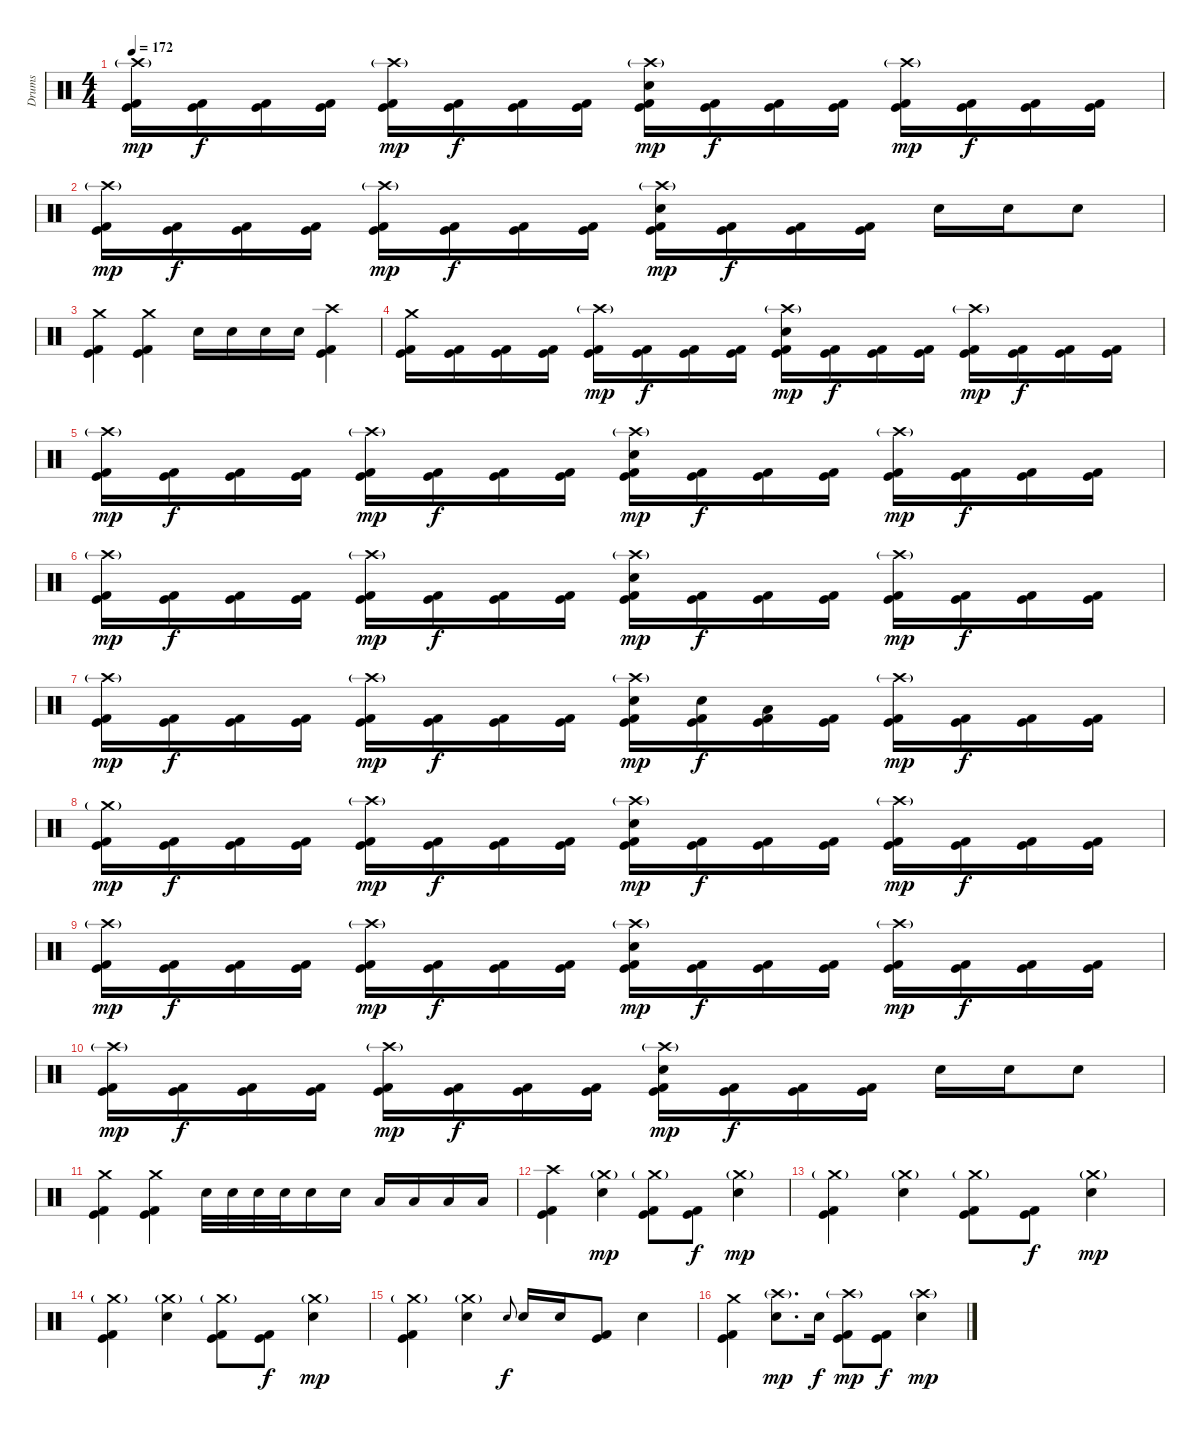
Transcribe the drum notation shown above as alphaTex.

\track ("Drums" "Drums") {instrument percussion}
\staff {score}
\articulation defaults
\ts (4 4)
\tempo 172
\clef neutral
\ks c
("Crash high (hit)"{g} "Kick (hit)" "Kick (hit) 2").16{dy mp} ("Kick (hit)" "Kick (hit) 2").16{dy f} ("Kick (hit)" "Kick (hit) 2").16 ("Kick (hit)" "Kick (hit) 2").16 ("Crash high (hit)"{g} "Kick (hit)" "Kick (hit) 2").16{dy mp} ("Kick (hit)" "Kick (hit) 2").16{dy f} ("Kick (hit)" "Kick (hit) 2").16 ("Kick (hit)" "Kick (hit) 2").16 ("Crash high (hit)"{g} "Electric Snare (hit)" "Kick (hit)" "Kick (hit) 2").16{dy mp} ("Kick (hit)" "Kick (hit) 2").16{dy f} ("Kick (hit)" "Kick (hit) 2").16 ("Kick (hit)" "Kick (hit) 2").16 ("Crash high (hit)"{g} "Kick (hit)" "Kick (hit) 2").16{dy mp} ("Kick (hit)" "Kick (hit) 2").16{dy f} ("Kick (hit)" "Kick (hit) 2").16 ("Kick (hit)" "Kick (hit) 2").16 |
("Crash high (hit)"{g} "Kick (hit)" "Kick (hit) 2").16{dy mp} ("Kick (hit)" "Kick (hit) 2").16{dy f} ("Kick (hit)" "Kick (hit) 2").16 ("Kick (hit)" "Kick (hit) 2").16 ("Crash high (hit)"{g} "Kick (hit)" "Kick (hit) 2").16{dy mp} ("Kick (hit)" "Kick (hit) 2").16{dy f} ("Kick (hit)" "Kick (hit) 2").16 ("Kick (hit)" "Kick (hit) 2").16 ("Crash high (hit)"{g} "Electric Snare (hit)" "Kick (hit)" "Kick (hit) 2").16{dy mp} ("Kick (hit)" "Kick (hit) 2").16{dy f} ("Kick (hit)" "Kick (hit) 2").16 ("Kick (hit)" "Kick (hit) 2").16 "Electric Snare (hit)".16 "Electric Snare (hit)".16 "Electric Snare (hit)".8 |
("Crash medium (hit)" "Kick (hit)" "Kick (hit) 2").4 ("Crash medium (hit)" "Kick (hit)" "Kick (hit) 2").4 "Electric Snare (hit)".16 "Electric Snare (hit)".16 "Electric Snare (hit)".16 "Electric Snare (hit)".16 ("Crash high (hit)" "Kick (hit)" "Kick (hit) 2").4 |
("Crash medium (hit)" "Kick (hit)" "Kick (hit) 2").16 ("Kick (hit)" "Kick (hit) 2").16 ("Kick (hit)" "Kick (hit) 2").16 ("Kick (hit)" "Kick (hit) 2").16 ("Crash high (hit)"{g} "Kick (hit)" "Kick (hit) 2").16{dy mp} ("Kick (hit)" "Kick (hit) 2").16{dy f} ("Kick (hit)" "Kick (hit) 2").16 ("Kick (hit)" "Kick (hit) 2").16 ("Crash high (hit)"{g} "Electric Snare (hit)" "Kick (hit)" "Kick (hit) 2").16{dy mp} ("Kick (hit)" "Kick (hit) 2").16{dy f} ("Kick (hit)" "Kick (hit) 2").16 ("Kick (hit)" "Kick (hit) 2").16 ("Crash high (hit)"{g} "Kick (hit)" "Kick (hit) 2").16{dy mp} ("Kick (hit)" "Kick (hit) 2").16{dy f} ("Kick (hit)" "Kick (hit) 2").16 ("Kick (hit)" "Kick (hit) 2").16 |
("Crash high (hit)"{g} "Kick (hit)" "Kick (hit) 2").16{dy mp} ("Kick (hit)" "Kick (hit) 2").16{dy f} ("Kick (hit)" "Kick (hit) 2").16 ("Kick (hit)" "Kick (hit) 2").16 ("Crash high (hit)"{g} "Kick (hit)" "Kick (hit) 2").16{dy mp} ("Kick (hit)" "Kick (hit) 2").16{dy f} ("Kick (hit)" "Kick (hit) 2").16 ("Kick (hit)" "Kick (hit) 2").16 ("Crash high (hit)"{g} "Electric Snare (hit)" "Kick (hit)" "Kick (hit) 2").16{dy mp} ("Kick (hit)" "Kick (hit) 2").16{dy f} ("Kick (hit)" "Kick (hit) 2").16 ("Kick (hit)" "Kick (hit) 2").16 ("Crash high (hit)"{g} "Kick (hit)" "Kick (hit) 2").16{dy mp} ("Kick (hit)" "Kick (hit) 2").16{dy f} ("Kick (hit)" "Kick (hit) 2").16 ("Kick (hit)" "Kick (hit) 2").16 |
("Crash high (hit)"{g} "Kick (hit)" "Kick (hit) 2").16{dy mp} ("Kick (hit)" "Kick (hit) 2").16{dy f} ("Kick (hit)" "Kick (hit) 2").16 ("Kick (hit)" "Kick (hit) 2").16 ("Crash high (hit)"{g} "Kick (hit)" "Kick (hit) 2").16{dy mp} ("Kick (hit)" "Kick (hit) 2").16{dy f} ("Kick (hit)" "Kick (hit) 2").16 ("Kick (hit)" "Kick (hit) 2").16 ("Crash high (hit)"{g} "Electric Snare (hit)" "Kick (hit)" "Kick (hit) 2").16{dy mp} ("Kick (hit)" "Kick (hit) 2").16{dy f} ("Kick (hit)" "Kick (hit) 2").16 ("Kick (hit)" "Kick (hit) 2").16 ("Crash high (hit)"{g} "Kick (hit)" "Kick (hit) 2").16{dy mp} ("Kick (hit)" "Kick (hit) 2").16{dy f} ("Kick (hit)" "Kick (hit) 2").16 ("Kick (hit)" "Kick (hit) 2").16 |
("Crash high (hit)"{g} "Kick (hit)" "Kick (hit) 2").16{dy mp} ("Kick (hit)" "Kick (hit) 2").16{dy f} ("Kick (hit)" "Kick (hit) 2").16 ("Kick (hit)" "Kick (hit) 2").16 ("Crash high (hit)"{g} "Kick (hit)" "Kick (hit) 2").16{dy mp} ("Kick (hit)" "Kick (hit) 2").16{dy f} ("Kick (hit)" "Kick (hit) 2").16 ("Kick (hit)" "Kick (hit) 2").16 ("Crash high (hit)"{g} "Electric Snare (hit)" "Kick (hit)" "Kick (hit) 2").16{dy mp} ("Electric Snare (hit)" "Kick (hit)" "Kick (hit) 2").16{dy f} ("Low Tom (hit)" "Kick (hit)" "Kick (hit) 2").16 ("Kick (hit)" "Kick (hit) 2").16 ("Crash high (hit)"{g} "Kick (hit)" "Kick (hit) 2").16{dy mp} ("Kick (hit)" "Kick (hit) 2").16{dy f} ("Kick (hit)" "Kick (hit) 2").16 ("Kick (hit)" "Kick (hit) 2").16 |
("Crash medium (hit)"{g} "Kick (hit)" "Kick (hit) 2").16{dy mp} ("Kick (hit)" "Kick (hit) 2").16{dy f} ("Kick (hit)" "Kick (hit) 2").16 ("Kick (hit)" "Kick (hit) 2").16 ("Crash high (hit)"{g} "Kick (hit)" "Kick (hit) 2").16{dy mp} ("Kick (hit)" "Kick (hit) 2").16{dy f} ("Kick (hit)" "Kick (hit) 2").16 ("Kick (hit)" "Kick (hit) 2").16 ("Crash high (hit)"{g} "Electric Snare (hit)" "Kick (hit)" "Kick (hit) 2").16{dy mp} ("Kick (hit)" "Kick (hit) 2").16{dy f} ("Kick (hit)" "Kick (hit) 2").16 ("Kick (hit)" "Kick (hit) 2").16 ("Crash high (hit)"{g} "Kick (hit)" "Kick (hit) 2").16{dy mp} ("Kick (hit)" "Kick (hit) 2").16{dy f} ("Kick (hit)" "Kick (hit) 2").16 ("Kick (hit)" "Kick (hit) 2").16 |
("Crash high (hit)"{g} "Kick (hit)" "Kick (hit) 2").16{dy mp} ("Kick (hit)" "Kick (hit) 2").16{dy f} ("Kick (hit)" "Kick (hit) 2").16 ("Kick (hit)" "Kick (hit) 2").16 ("Crash high (hit)"{g} "Kick (hit)" "Kick (hit) 2").16{dy mp} ("Kick (hit)" "Kick (hit) 2").16{dy f} ("Kick (hit)" "Kick (hit) 2").16 ("Kick (hit)" "Kick (hit) 2").16 ("Crash high (hit)"{g} "Electric Snare (hit)" "Kick (hit)" "Kick (hit) 2").16{dy mp} ("Kick (hit)" "Kick (hit) 2").16{dy f} ("Kick (hit)" "Kick (hit) 2").16 ("Kick (hit)" "Kick (hit) 2").16 ("Crash high (hit)"{g} "Kick (hit)" "Kick (hit) 2").16{dy mp} ("Kick (hit)" "Kick (hit) 2").16{dy f} ("Kick (hit)" "Kick (hit) 2").16 ("Kick (hit)" "Kick (hit) 2").16 |
("Crash high (hit)"{g} "Kick (hit)" "Kick (hit) 2").16{dy mp} ("Kick (hit)" "Kick (hit) 2").16{dy f} ("Kick (hit)" "Kick (hit) 2").16 ("Kick (hit)" "Kick (hit) 2").16 ("Crash high (hit)"{g} "Kick (hit)" "Kick (hit) 2").16{dy mp} ("Kick (hit)" "Kick (hit) 2").16{dy f} ("Kick (hit)" "Kick (hit) 2").16 ("Kick (hit)" "Kick (hit) 2").16 ("Crash high (hit)"{g} "Electric Snare (hit)" "Kick (hit)" "Kick (hit) 2").16{dy mp} ("Kick (hit)" "Kick (hit) 2").16{dy f} ("Kick (hit)" "Kick (hit) 2").16 ("Kick (hit)" "Kick (hit) 2").16 "Electric Snare (hit)".16 "Electric Snare (hit)".16 "Electric Snare (hit)".8 |
("Crash medium (hit)" "Kick (hit)" "Kick (hit) 2").4 ("Crash medium (hit)" "Kick (hit)" "Kick (hit) 2").4 "Electric Snare (hit)".32 "Electric Snare (hit)".32 "Electric Snare (hit)".32 "Electric Snare (hit)".32 "Electric Snare (hit)".16 "Electric Snare (hit)".16 "Low Tom (hit)".16 "Low Tom (hit)".16 "Low Tom (hit)".16 "Low Tom (hit)".16 |
("Crash high (hit)" "Kick (hit)" "Kick (hit) 2").4 ("Crash medium (hit)"{g} "Electric Snare (hit)").4{dy mp} ("Crash medium (hit)"{g} "Kick (hit)" "Kick (hit) 2").8 ("Kick (hit)" "Kick (hit) 2").8{dy f} ("Crash medium (hit)"{g} "Electric Snare (hit)").4{dy mp} |
("Crash medium (hit)"{g} "Kick (hit)" "Kick (hit) 2").4 ("Crash medium (hit)"{g} "Electric Snare (hit)").4 ("Crash medium (hit)"{g} "Kick (hit)" "Kick (hit) 2").8 ("Kick (hit)" "Kick (hit) 2").8{dy f} ("Crash medium (hit)"{g} "Electric Snare (hit)").4{dy mp} |
("Crash medium (hit)"{g} "Kick (hit)" "Kick (hit) 2").4 ("Crash medium (hit)"{g} "Electric Snare (hit)").4 ("Crash medium (hit)"{g} "Kick (hit)" "Kick (hit) 2").8 ("Kick (hit)" "Kick (hit) 2").8{dy f} ("Crash medium (hit)"{g} "Electric Snare (hit)").4{dy mp} |
("Crash medium (hit)"{g} "Kick (hit)" "Kick (hit) 2").4 ("Crash medium (hit)"{g} "Electric Snare (hit)").4 "Electric Snare (hit)".8{gr onbeat dy f} "Electric Snare (hit)".16 "Electric Snare (hit)".16 ("Kick (hit)" "Kick (hit) 2").8 "Electric Snare (hit)".4 |
("Crash medium (hit)" "Kick (hit)" "Kick (hit) 2").4 ("Crash high (hit)"{g} "Electric Snare (hit)").8{d dy mp} "Electric Snare (hit)".16{dy f} ("Crash high (hit)"{g} "Kick (hit)" "Kick (hit) 2").8{dy mp} ("Kick (hit)" "Kick (hit) 2").8{dy f} ("Crash high (hit)"{g} "Electric Snare (hit)").4{dy mp}
